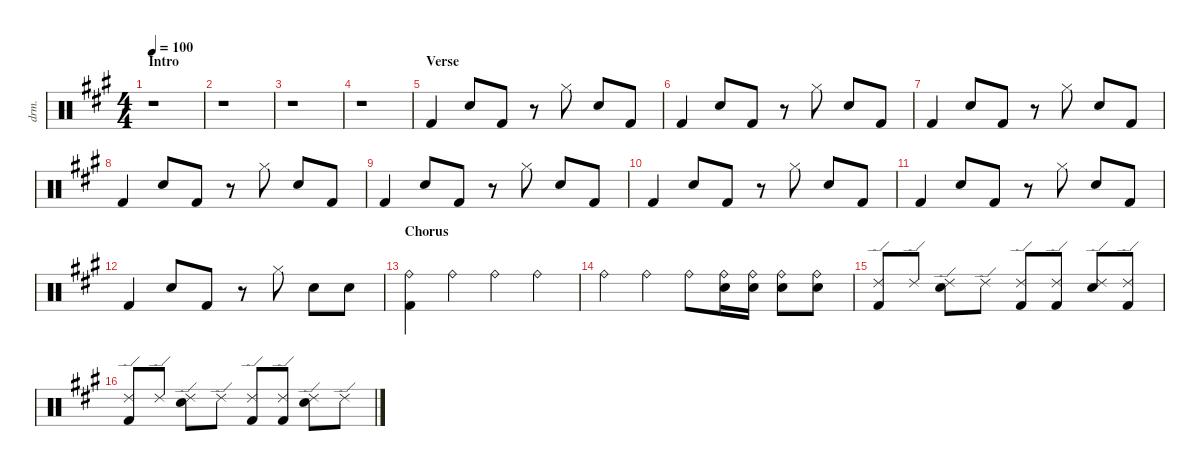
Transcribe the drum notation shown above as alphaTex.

\defaultSystemsLayout 4
\hideDynamics
\bracketExtendMode nobrackets
\otherSystemsTrackNameOrientation horizontal
\track ("Drums" "drm.") {instrument percussion}
\staff {score}
\articulation defaults
\ts (4 4)
\section ("" "Intro")
\tempo 100
\clef neutral
\ks a
r.1{dy f} |
r.1 |
r.1 |
r.1 |
\section ("" "Verse")
"Kick (hit) 2"{acc forcenatural}.4 "Snare (hit) 2"{acc forcenatural}.8 "Kick (hit) 2"{acc forcenatural}.8 r.8 "Hi-Hat (closed)"{acc forcenatural}.8 "Snare (hit) 2"{acc forcenatural}.8 "Kick (hit) 2"{acc forcenatural}.8 |
"Kick (hit) 2"{acc forcenatural}.4 "Snare (hit) 2"{acc forcenatural}.8 "Kick (hit) 2"{acc forcenatural}.8 r.8 "Hi-Hat (closed)"{acc forcenatural}.8 "Snare (hit) 2"{acc forcenatural}.8 "Kick (hit) 2"{acc forcenatural}.8 |
"Kick (hit) 2"{acc forcenatural}.4 "Snare (hit) 2"{acc forcenatural}.8 "Kick (hit) 2"{acc forcenatural}.8 r.8 "Hi-Hat (closed)"{acc forcenatural}.8 "Snare (hit) 2"{acc forcenatural}.8 "Kick (hit) 2"{acc forcenatural}.8 |
"Kick (hit) 2"{acc forcenatural}.4 "Snare (hit) 2"{acc forcenatural}.8 "Kick (hit) 2"{acc forcenatural}.8 r.8 "Hi-Hat (closed)"{acc forcenatural}.8 "Snare (hit) 2"{acc forcenatural}.8 "Kick (hit) 2"{acc forcenatural}.8 |
"Kick (hit) 2"{acc forcenatural}.4 "Snare (hit) 2"{acc forcenatural}.8 "Kick (hit) 2"{acc forcenatural}.8 r.8 "Hi-Hat (closed)"{acc forcenatural}.8 "Snare (hit) 2"{acc forcenatural}.8 "Kick (hit) 2"{acc forcenatural}.8 |
"Kick (hit) 2"{acc forcenatural}.4 "Snare (hit) 2"{acc forcenatural}.8 "Kick (hit) 2"{acc forcenatural}.8 r.8 "Hi-Hat (closed)"{acc forcenatural}.8 "Snare (hit) 2"{acc forcenatural}.8 "Kick (hit) 2"{acc forcenatural}.8 |
"Kick (hit) 2"{acc forcenatural}.4 "Snare (hit) 2"{acc forcenatural}.8 "Kick (hit) 2"{acc forcenatural}.8 r.8 "Hi-Hat (closed)"{acc forcenatural}.8 "Snare (hit) 2"{acc forcenatural}.8 "Kick (hit) 2"{acc forcenatural}.8 |
"Kick (hit) 2"{acc forcenatural}.4 "Snare (hit) 2"{acc forcenatural}.8 "Kick (hit) 2"{acc forcenatural}.8 r.8 "Hi-Hat (closed)"{acc forcenatural}.8 "Snare (hit) 2"{acc forcenatural}.8 "Snare (hit) 2"{acc forcenatural}.8 |
\section ("" "Chorus")
("Ride (bell)"{acc forcenatural} "Kick (hit) 2"{acc forcenatural}).4 "Ride (bell)"{acc forcenatural}.4 "Ride (bell)"{acc forcenatural}.4 "Ride (bell)"{acc forcenatural}.4 |
"Ride (bell)"{acc forcenatural}.4 "Ride (bell)"{acc forcenatural}.4 "Ride (bell)"{acc forcenatural}.8 ("Ride (bell)"{acc forcenatural} "Snare (hit) 2"{acc forcenatural}).16 ("Ride (bell)"{acc forcenatural} "Snare (hit) 2"{acc forcenatural}).16 ("Ride (bell)"{acc forcenatural} "Snare (hit) 2"{acc forcenatural}).8 ("Ride (bell)"{acc forcenatural} "Snare (hit) 2"{acc forcenatural}).8 |
("Ride (edge) 2"{acc forcenatural} "Kick (hit) 2"{acc forcenatural}).8 "Ride (edge) 2"{acc forcenatural}.8 ("Ride (edge) 2"{acc forcenatural} "Snare (hit) 2"{acc forcenatural}).8 "Ride (edge) 2"{acc forcenatural}.8 ("Ride (edge) 2"{acc forcenatural} "Kick (hit) 2"{acc forcenatural}).8 ("Ride (edge) 2"{acc forcenatural} "Kick (hit) 2"{acc forcenatural}).8 ("Ride (edge) 2"{acc forcenatural} "Snare (hit) 2"{acc forcenatural}).8 ("Ride (edge) 2"{acc forcenatural} "Kick (hit) 2"{acc forcenatural}).8 |
("Ride (edge) 2"{acc forcenatural} "Kick (hit) 2"{acc forcenatural}).8 "Ride (edge) 2"{acc forcenatural}.8 ("Ride (edge) 2"{acc forcenatural} "Snare (hit) 2"{acc forcenatural}).8 "Ride (edge) 2"{acc forcenatural}.8 ("Ride (edge) 2"{acc forcenatural} "Kick (hit) 2"{acc forcenatural}).8 ("Ride (edge) 2"{acc forcenatural} "Kick (hit) 2"{acc forcenatural}).8 ("Ride (edge) 2"{acc forcenatural} "Snare (hit) 2"{acc forcenatural}).8 "Ride (edge) 2"{acc forcenatural}.8
